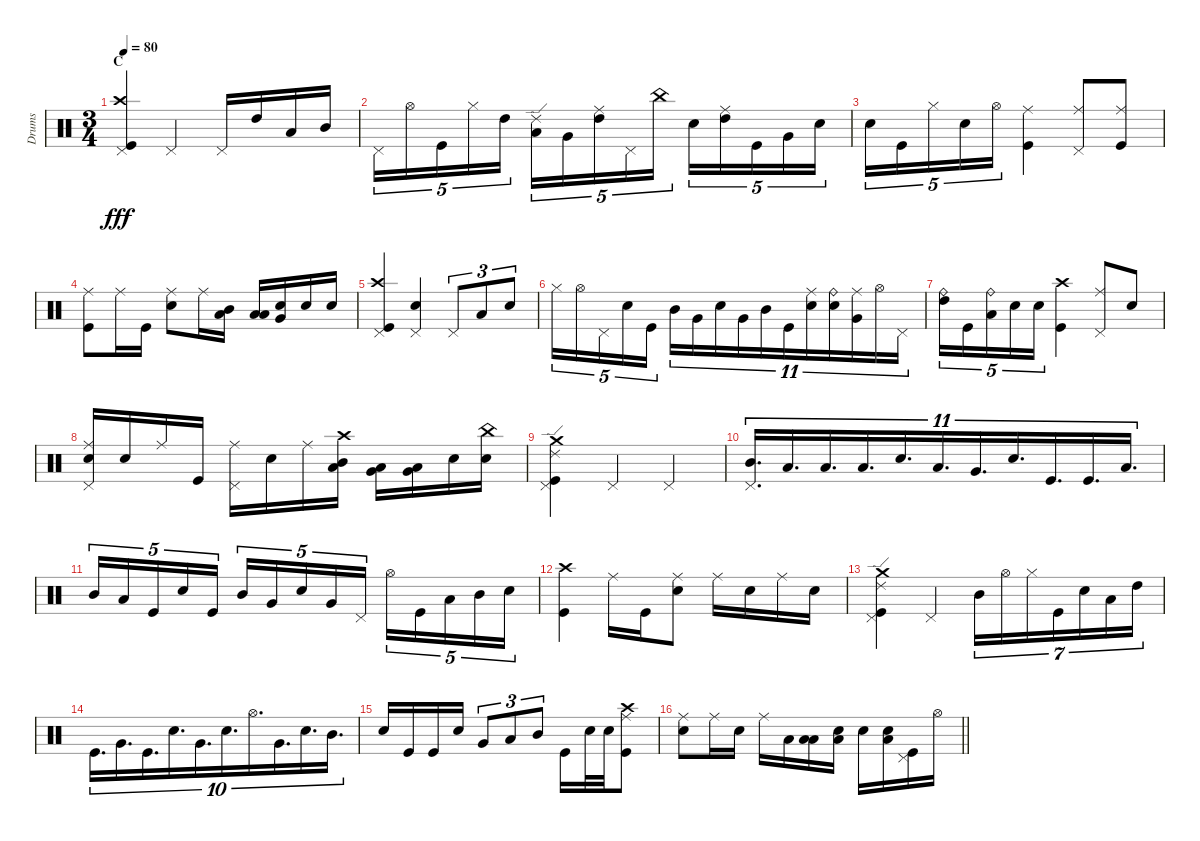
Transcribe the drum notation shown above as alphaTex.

\track ("Drums" "Drums") {instrument percussion}
\staff {score}
\articulation defaults
\ts (3 4)
\section ("" "C")
\tempo 80
\clef neutral
\ks c
("Pedal Hi-Hat (hit)" "Crash high (hit)" "Kick (hit)").4{dy fff} "Pedal Hi-Hat (hit)".4 "Pedal Hi-Hat (hit)".16 "High Tom (hit)".16 "Low Tom (hit)".16 "Mid Tom (hit)".16 |
"Pedal Hi-Hat (hit)".16{tu (5 4)} "Hi-Hat (open)".16{tu (5 4)} "Kick (hit)".16{tu (5 4)} "Hi-Hat (closed)".16{tu (5 4)} "High Tom (hit)".16{tu (5 4)} ("Ride (edge) 2" "Low Floor Tom (hit)").16{tu (5 4)} "Very Low Tom (hit)".16{tu (5 4)} ("Ride (middle)" "High Tom (hit)").16{tu (5 4)} "Pedal Hi-Hat (hit)".16{tu (5 4)} "China (hit)".16{tu (5 4)} "Snare (hit) 2".16{tu (5 4)} ("Ride (middle)" "High Tom (hit)").16{tu (5 4)} "Kick (hit)".16{tu (5 4)} "Very Low Tom (hit)".16{tu (5 4)} "Snare (hit) 2".16{tu (5 4)} |
"Snare (hit) 2".16{tu (5 4)} "Kick (hit)".16{tu (5 4)} "Hi-Hat (closed)".16{tu (5 4)} "Snare (hit) 2".16{tu (5 4)} "Hi-Hat (open)".16{tu (5 4)} ("Ride (middle)" "Kick (hit)").4 ("Ride (middle)" "Pedal Hi-Hat (hit)").8 ("Ride (middle)" "Kick (hit)").8 |
("Ride (middle)" "Kick (hit)").8 "Ride (middle)".16 "Kick (hit)".16 ("Ride (middle)" "Snare (hit) 2").8 "Ride (middle)".16 ("Mid Tom (hit)" "Low Tom (hit)").16 ("Low Tom (hit)" "Low Floor Tom (hit)").16 ("Very Low Tom (hit)" "Snare (hit) 2").16 "Snare (hit) 2".16 "Snare (hit) 2".16 |
("Pedal Hi-Hat (hit)" "Crash high (hit)" "Kick (hit)").4 ("Pedal Hi-Hat (hit)" "Snare (hit) 2").4 "Pedal Hi-Hat (hit)".8{tu (3 2)} "Low Tom (hit)".8{tu (3 2)} "Snare (hit) 2".8{tu (3 2)} |
"Hi-Hat (closed)".16{tu (5 4)} "Hi-Hat (open)".16{tu (5 4)} "Pedal Hi-Hat (hit)".16{tu (5 4)} "Snare (hit) 2".16{tu (5 4)} "Kick (hit)".16{tu (5 4)} "Mid Tom (hit)".16{tu (11 8)} "Very Low Tom (hit)".16{tu (11 8)} "Snare (hit) 2".16{tu (11 8)} "Very Low Tom (hit)".16{tu (11 8)} "Mid Tom (hit)".16{tu (11 8)} "Kick (hit)".16{tu (11 8)} ("Ride (middle)" "Snare (hit) 2").16{tu (11 8)} ("Ride (bell)" "Snare (hit) 2").16{tu (11 8)} ("Ride (middle)" "Very Low Tom (hit)").16{tu (11 8)} "Hi-Hat (open)".16{tu (11 8)} "Pedal Hi-Hat (hit)".16{tu (11 8)} |
("Ride (bell)" "High Tom (hit)").16{tu (5 4)} "Kick (hit)".16{tu (5 4)} ("Ride (bell)" "Low Floor Tom (hit)").16{tu (5 4)} "Snare (hit) 2".16{tu (5 4)} "Snare (hit) 2".16{tu (5 4)} ("Crash high (hit)" "Kick (hit)").4 ("Ride (middle)" "Pedal Hi-Hat (hit)").8 "Snare (hit) 2".8 |
("Ride (middle)" "Pedal Hi-Hat (hit)" "Snare (hit) 2").16 "Snare (hit) 2".16 "Ride (middle)".16 "Kick (hit)".16 ("Ride (middle)" "Pedal Hi-Hat (hit)").16 "Snare (hit) 2".16 "Ride (middle)".16 ("Crash high (hit)" "Mid Tom (hit)" "Low Tom (hit)").16 ("Very Low Tom (hit)" "Low Floor Tom (hit)").16 ("Very Low Tom (hit)" "Low Floor Tom (hit)").16 "Snare (hit) 2".16 ("China (hit)" "Snare (hit) 2").16 |
("Ride (edge) 2" "Crash medium (hit)" "Pedal Hi-Hat (hit)" "Kick (hit)").4 "Pedal Hi-Hat (hit)".4 "Pedal Hi-Hat (hit)".4 |
("Pedal Hi-Hat (hit)" "Mid Tom (hit)").16{d tu (11 8)} "Low Tom (hit)".16{d tu (11 8)} "Low Tom (hit)".16{d tu (11 8)} "Low Floor Tom (hit)".16{d tu (11 8)} "Snare (hit) 2".16{d tu (11 8)} "Low Tom (hit)".16{d tu (11 8)} "Very Low Tom (hit)".16{d tu (11 8)} "Snare (hit) 2".16{d tu (11 8)} "Kick (hit)".16{d tu (11 8)} "Kick (hit)".16{d tu (11 8)} "Low Floor Tom (hit)".16{d tu (11 8)} |
"Mid Tom (hit)".16{tu (5 4)} "Low Tom (hit)".16{tu (5 4)} "Kick (hit)".16{tu (5 4)} "Snare (hit) 2".16{tu (5 4)} "Kick (hit)".16{tu (5 4)} "Mid Tom (hit)".16{tu (5 4)} "Very Low Tom (hit)".16{tu (5 4)} "Snare (hit) 2".16{tu (5 4)} "Very Low Tom (hit)".16{tu (5 4)} "Pedal Hi-Hat (hit)".16{tu (5 4)} "Hi-Hat (open)".16{tu (5 4)} "Kick (hit)".16{tu (5 4)} "Low Floor Tom (hit)".16{tu (5 4)} "Mid Tom (hit)".16{tu (5 4)} "Snare (hit) 2".16{tu (5 4)} |
("Crash high (hit)" "Kick (hit)").4 "Ride (middle)".16 "Kick (hit)".16 ("Ride (middle)" "Snare (hit) 2").8 "Ride (middle)".16 "Snare (hit) 2".16 "Ride (middle)".16 "Snare (hit) 2".16 |
("Ride (edge) 2" "Crash medium (hit)" "Pedal Hi-Hat (hit)" "Kick (hit)").4 "Pedal Hi-Hat (hit)".4 "Mid Tom (hit)".16{tu (7 4)} "Hi-Hat (open)".16{tu (7 4)} "Hi-Hat (closed)".16{tu (7 4)} "Kick (hit)".16{tu (7 4)} "Snare (hit) 2".16{tu (7 4)} "Low Tom (hit)".16{tu (7 4)} "High Tom (hit)".16{tu (7 4)} |
"Kick (hit)".16{d tu (10 8)} "Very Low Tom (hit)".16{d tu (10 8)} "Kick (hit)".16{d tu (10 8)} "Snare (hit) 2".16{d tu (10 8)} "Very Low Tom (hit)".16{d tu (10 8)} "Snare (hit) 2".16{d tu (10 8)} "Hi-Hat (open)".16{d tu (10 8)} "Very Low Tom (hit)".16{d tu (10 8)} "Snare (hit) 2".16{d tu (10 8)} "Mid Tom (hit)".16{d tu (10 8)} |
"Snare (hit) 2".16 "Kick (hit)".16 "Kick (hit)".16 "Snare (hit) 2".16 "Very Low Tom (hit)".8{tu (3 2)} "Low Floor Tom (hit)".8{tu (3 2)} "Mid Tom (hit)".8{tu (3 2)} "Kick (hit)".16 "Snare (hit) 2".32 "Snare (hit) 2".32 ("Ride (middle)" "Crash high (hit)" "Kick (hit)").8 |
\barLineRight lightlight
("Ride (middle)" "Snare (hit) 2").8 "Ride (middle)".16 "Snare (hit) 2".16 "Ride (middle)".16 "Low Tom (hit)".16 ("Low Tom (hit)" "Low Floor Tom (hit)").16 ("Low Floor Tom (hit)" "Snare (hit) 2").16 "Snare (hit) 2".16 ("Low Floor Tom (hit)" "Snare (hit) 2").16 ("Pedal Hi-Hat (hit)" "Kick (hit)").16 "Hi-Hat (open)".16
